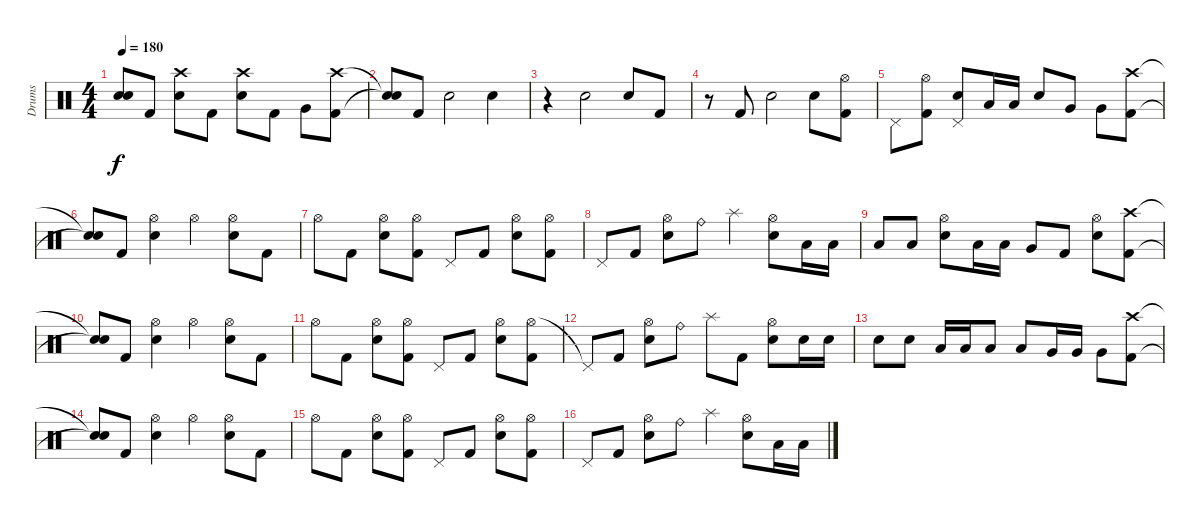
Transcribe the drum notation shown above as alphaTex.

\track ("Drums" "Drums") {instrument percussion}
\staff {score}
\articulation defaults
\ts (4 4)
\tempo 180
\clef neutral
\ks c
("Snare (hit)"{t} "Snare (hit)"{t}).8{dy f} "Kick (hit) 2".8 ("Crash high (hit)" "Electric Snare (hit)").8 "Kick (hit) 2".8 ("Crash high (hit)" "Electric Snare (hit)").8 "Kick (hit) 2".8 "Very Low Tom (hit)".8 ("Crash high (hit)" "Kick (hit) 2").8 |
("Snare (hit)"{t} "Snare (hit)"{t}).8 "Kick (hit) 2".8 "Electric Snare (hit)".2 "Electric Snare (hit)".4 |
r.4 "Electric Snare (hit)".2 "Electric Snare (hit)".8 "Kick (hit) 2".8 |
r.8 "Kick (hit) 2".8 "Electric Snare (hit)".2 "Electric Snare (hit)".8 ("Hi-Hat (open)" "Kick (hit) 2").8 |
"Pedal Hi-Hat (hit)".8 ("Hi-Hat (open)" "Kick (hit) 2").8 ("Pedal Hi-Hat (hit)" "Electric Snare (hit)").8 "Low Tom (hit)".16 "Low Tom (hit)".16 "Electric Snare (hit)".8 "Very Low Tom (hit)".8 "Very Low Tom (hit)".8 ("Crash high (hit)" "Kick (hit) 2").8 |
("Snare (hit)"{t} "Snare (hit)"{t}).8 "Kick (hit) 2".8 ("Hi-Hat (open)" "Electric Snare (hit)").4 "Hi-Hat (open)".4 ("Hi-Hat (open)" "Electric Snare (hit)").8 "Kick (hit) 2".8 |
"Hi-Hat (open)".8 "Kick (hit) 2".8 ("Hi-Hat (open)" "Electric Snare (hit)").8 ("Hi-Hat (open)" "Kick (hit) 2").8 "Pedal Hi-Hat (hit)".8 "Kick (hit) 2".8 ("Hi-Hat (open)" "Electric Snare (hit)").8 ("Hi-Hat (open)" "Kick (hit) 2").8 |
"Pedal Hi-Hat (hit)".8 "Kick (hit) 2".8 ("Hi-Hat (open)" "Electric Snare (hit)").8 "Ride (bell)".8 "Splash (hit)".4 ("Hi-Hat (open)" "Electric Snare (hit)").8 "Low Tom (hit)".16 "Low Tom (hit)".16 |
"Low Tom (hit)".8 "Low Tom (hit)".8 ("Hi-Hat (open)" "Electric Snare (hit)").8 "Low Tom (hit)".16 "Low Tom (hit)".16 "Very Low Tom (hit)".8 "Kick (hit) 2".8 ("Hi-Hat (open)" "Electric Snare (hit)").8 ("Crash high (hit)" "Kick (hit) 2").8 |
("Snare (hit)"{t} "Snare (hit)"{t}).8 "Kick (hit) 2".8 ("Hi-Hat (open)" "Electric Snare (hit)").4 "Hi-Hat (open)".4 ("Hi-Hat (open)" "Electric Snare (hit)").8 "Kick (hit) 2".8 |
"Hi-Hat (open)".8 "Kick (hit) 2".8 ("Hi-Hat (open)" "Electric Snare (hit)").8 ("Hi-Hat (open)" "Kick (hit) 2").8 "Pedal Hi-Hat (hit)".8 "Kick (hit) 2".8 ("Hi-Hat (open)" "Electric Snare (hit)").8 ("Hi-Hat (open)" "Kick (hit) 2").8 |
"Pedal Hi-Hat (hit)"{t}.8 "Kick (hit) 2".8 ("Hi-Hat (open)" "Electric Snare (hit)").8 "Ride (bell)".8 "Splash (hit)".8 "Kick (hit) 2".8 ("Hi-Hat (open)" "Electric Snare (hit)").8 "Electric Snare (hit)".16 "Electric Snare (hit)".16 |
"Electric Snare (hit)".8 "Electric Snare (hit)".8 "Low Tom (hit)".16 "Low Tom (hit)".16 "Low Tom (hit)".8 "Low Tom (hit)".8 "Very Low Tom (hit)".16 "Very Low Tom (hit)".16 "Very Low Tom (hit)".8 ("Crash high (hit)" "Kick (hit) 2").8 |
("Snare (hit)"{t} "Snare (hit)"{t}).8 "Kick (hit) 2".8 ("Hi-Hat (open)" "Electric Snare (hit)").4 "Hi-Hat (open)".4 ("Hi-Hat (open)" "Electric Snare (hit)").8 "Kick (hit) 2".8 |
"Hi-Hat (open)".8 "Kick (hit) 2".8 ("Hi-Hat (open)" "Electric Snare (hit)").8 ("Hi-Hat (open)" "Kick (hit) 2").8 "Pedal Hi-Hat (hit)".8 "Kick (hit) 2".8 ("Hi-Hat (open)" "Electric Snare (hit)").8 ("Hi-Hat (open)" "Kick (hit) 2").8 |
"Pedal Hi-Hat (hit)".8 "Kick (hit) 2".8 ("Hi-Hat (open)" "Electric Snare (hit)").8 "Ride (bell)".8 "Splash (hit)".4 ("Hi-Hat (open)" "Electric Snare (hit)").8 "Low Tom (hit)".16 "Low Tom (hit)".16
